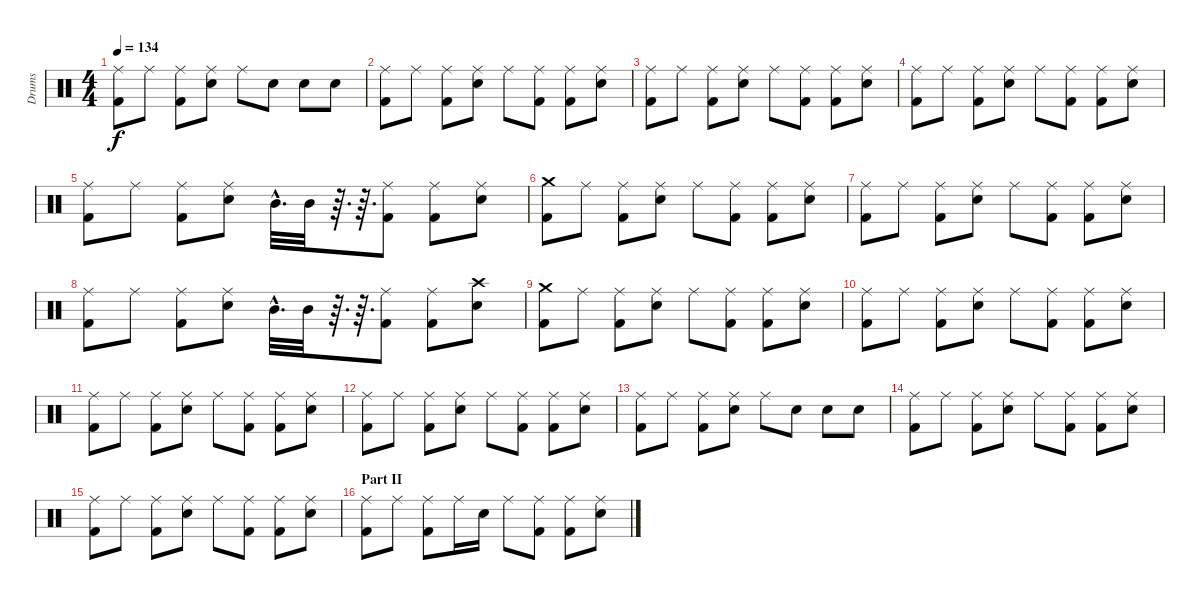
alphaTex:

\track ("Drums" "Drums") {instrument percussion}
\staff {score}
\articulation defaults
\ts (4 4)
\tempo 134
\clef neutral
\ks c
("Ride (middle)" "Kick (hit) 2").8{dy f} "Ride (middle)".8 ("Ride (middle)" "Kick (hit) 2").8 ("Ride (middle)" "Snare (hit) 2").8 "Ride (middle)".8 "Snare (hit) 2".8 "Snare (hit) 2".8 "Snare (hit) 2".8 |
("Ride (middle)" "Kick (hit) 2").8 "Ride (middle)".8 ("Ride (middle)" "Kick (hit) 2").8 ("Ride (middle)" "Snare (hit) 2").8 "Ride (middle)".8 ("Ride (middle)" "Kick (hit) 2").8 ("Ride (middle)" "Kick (hit) 2").8 ("Ride (middle)" "Snare (hit) 2").8 |
("Ride (middle)" "Kick (hit) 2").8 "Ride (middle)".8 ("Ride (middle)" "Kick (hit) 2").8 ("Ride (middle)" "Snare (hit) 2").8 "Ride (middle)".8 ("Ride (middle)" "Kick (hit) 2").8 ("Ride (middle)" "Kick (hit) 2").8 ("Ride (middle)" "Snare (hit) 2").8 |
("Ride (middle)" "Kick (hit) 2").8 "Ride (middle)".8 ("Ride (middle)" "Kick (hit) 2").8 ("Ride (middle)" "Snare (hit) 2").8 "Ride (middle)".8 ("Ride (middle)" "Kick (hit) 2").8 ("Ride (middle)" "Kick (hit) 2").8 ("Ride (middle)" "Snare (hit) 2").8 |
("Ride (middle)" "Kick (hit) 2").8 "Ride (middle)".8 ("Ride (middle)" "Kick (hit) 2").8 ("Ride (middle)" "Snare (hit) 2").8 "Mid Tom (hit)"{hac}.32{d} "Mid Tom (hit)".32 r.64{d} r.64{d} ("Ride (middle)" "Kick (hit) 2").8 ("Ride (middle)" "Kick (hit) 2").8 ("Ride (middle)" "Snare (hit) 2").8 |
("Crash medium (hit)" "Kick (hit) 2").8 "Ride (middle)".8 ("Ride (middle)" "Kick (hit) 2").8 ("Ride (middle)" "Snare (hit) 2").8 "Ride (middle)".8 ("Ride (middle)" "Kick (hit) 2").8 ("Ride (middle)" "Kick (hit) 2").8 ("Ride (middle)" "Snare (hit) 2").8 |
("Ride (middle)" "Kick (hit) 2").8 "Ride (middle)".8 ("Ride (middle)" "Kick (hit) 2").8 ("Ride (middle)" "Snare (hit) 2").8 "Ride (middle)".8 ("Ride (middle)" "Kick (hit) 2").8 ("Ride (middle)" "Kick (hit) 2").8 ("Ride (middle)" "Snare (hit) 2").8 |
("Ride (middle)" "Kick (hit) 2").8 "Ride (middle)".8 ("Ride (middle)" "Kick (hit) 2").8 ("Ride (middle)" "Snare (hit) 2").8 "Mid Tom (hit)"{hac}.32{d} "Mid Tom (hit)".32 r.64{d} r.64{d} ("Ride (middle)" "Kick (hit) 2").8 ("Ride (middle)" "Kick (hit) 2").8 ("Crash high (hit)" "Snare (hit) 2").8 |
("Crash medium (hit)" "Kick (hit) 2").8 "Ride (middle)".8 ("Ride (middle)" "Kick (hit) 2").8 ("Ride (middle)" "Snare (hit) 2").8 "Ride (middle)".8 ("Ride (middle)" "Kick (hit) 2").8 ("Ride (middle)" "Kick (hit) 2").8 ("Ride (middle)" "Snare (hit) 2").8 |
("Ride (middle)" "Kick (hit) 2").8 "Ride (middle)".8 ("Ride (middle)" "Kick (hit) 2").8 ("Ride (middle)" "Snare (hit) 2").8 "Ride (middle)".8 ("Ride (middle)" "Kick (hit) 2").8 ("Ride (middle)" "Kick (hit) 2").8 ("Ride (middle)" "Snare (hit) 2").8 |
("Ride (middle)" "Kick (hit) 2").8 "Ride (middle)".8 ("Ride (middle)" "Kick (hit) 2").8 ("Ride (middle)" "Snare (hit) 2").8 "Ride (middle)".8 ("Ride (middle)" "Kick (hit) 2").8 ("Ride (middle)" "Kick (hit) 2").8 ("Ride (middle)" "Snare (hit) 2").8 |
("Ride (middle)" "Kick (hit) 2").8 "Ride (middle)".8 ("Ride (middle)" "Kick (hit) 2").8 ("Ride (middle)" "Snare (hit) 2").8 "Ride (middle)".8 ("Ride (middle)" "Kick (hit) 2").8 ("Ride (middle)" "Kick (hit) 2").8 ("Ride (middle)" "Snare (hit) 2").8 |
("Ride (middle)" "Kick (hit) 2").8 "Ride (middle)".8 ("Ride (middle)" "Kick (hit) 2").8 ("Ride (middle)" "Snare (hit) 2").8 "Ride (middle)".8 "Snare (hit) 2".8 "Snare (hit) 2".8 "Snare (hit) 2".8 |
("Ride (middle)" "Kick (hit) 2").8 "Ride (middle)".8 ("Ride (middle)" "Kick (hit) 2").8 ("Ride (middle)" "Snare (hit) 2").8 "Ride (middle)".8 ("Ride (middle)" "Kick (hit) 2").8 ("Ride (middle)" "Kick (hit) 2").8 ("Ride (middle)" "Snare (hit) 2").8 |
("Ride (middle)" "Kick (hit) 2").8 "Ride (middle)".8 ("Ride (middle)" "Kick (hit) 2").8 ("Ride (middle)" "Snare (hit) 2").8 "Ride (middle)".8 ("Ride (middle)" "Kick (hit) 2").8 ("Ride (middle)" "Kick (hit) 2").8 ("Ride (middle)" "Snare (hit) 2").8 |
\section ("" "Part II")
("Ride (middle)" "Kick (hit) 2").8 "Ride (middle)".8 ("Ride (middle)" "Kick (hit) 2").8 "Ride (middle)".16 "Snare (hit) 2".16 "Ride (middle)".8 ("Ride (middle)" "Kick (hit) 2").8 ("Ride (middle)" "Kick (hit) 2").8 ("Ride (middle)" "Snare (hit) 2").8
